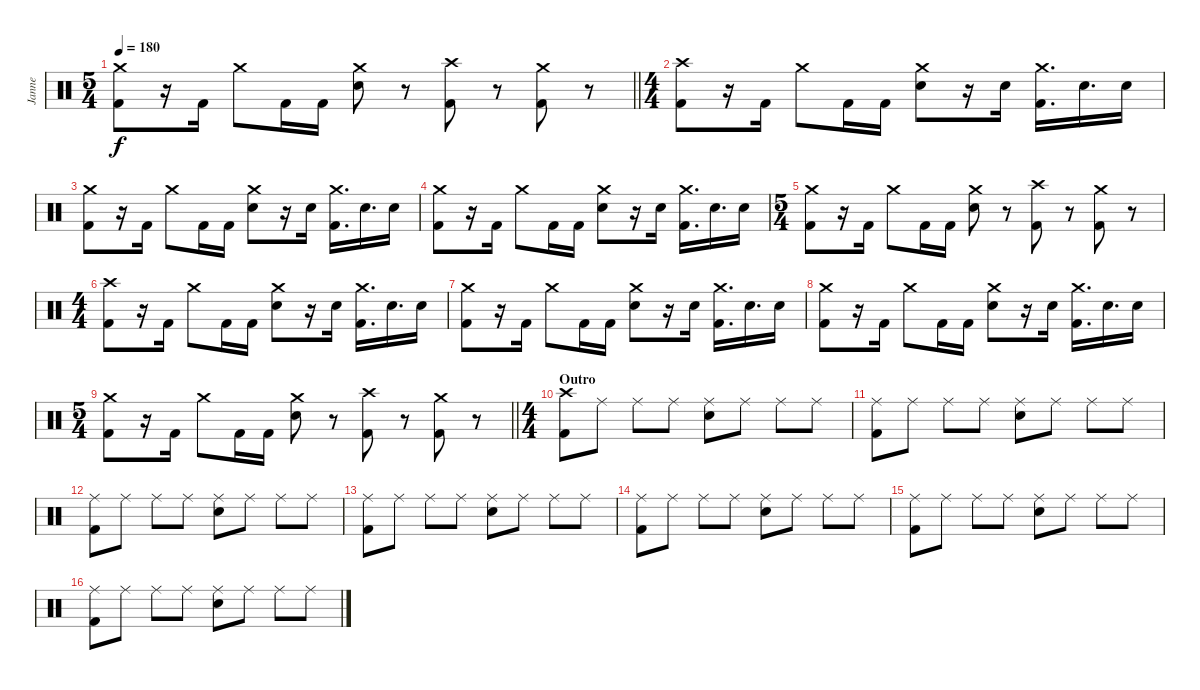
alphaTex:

\track ("Janne" "Janne") {instrument percussion}
\staff {score}
\articulation defaults
\ts (5 4)
\tempo 180
\clef neutral
\barLineRight lightlight
\ks c
("Crash medium (hit)" "Kick (hit) 2").8{dy f} r.16 "Kick (hit) 2".16 "Crash medium (hit)".8 "Kick (hit) 2".16 "Kick (hit) 2".16 ("Crash medium (hit)" "Electric Snare (hit)").8 r.8 ("Crash high (hit)" "Kick (hit) 2").8 r.8 ("Crash medium (hit)" "Kick (hit) 2").8 r.8 |
\ts (4 4)
("Crash high (hit)" "Kick (hit) 2").8 r.16 "Kick (hit) 2".16 "Crash medium (hit)".8 "Kick (hit) 2".16 "Kick (hit) 2".16 ("Crash medium (hit)" "Electric Snare (hit)").8 r.16 "Electric Snare (hit)".16 ("Crash medium (hit)" "Kick (hit) 2").16{d} "Electric Snare (hit)".16{d} "Electric Snare (hit)".16 |
("Crash medium (hit)" "Kick (hit) 2").8 r.16 "Kick (hit) 2".16 "Crash medium (hit)".8 "Kick (hit) 2".16 "Kick (hit) 2".16 ("Crash medium (hit)" "Electric Snare (hit)").8 r.16 "Electric Snare (hit)".16 ("Crash medium (hit)" "Kick (hit) 2").16{d} "Electric Snare (hit)".16{d} "Electric Snare (hit)".16 |
("Crash medium (hit)" "Kick (hit) 2").8 r.16 "Kick (hit) 2".16 "Crash medium (hit)".8 "Kick (hit) 2".16 "Kick (hit) 2".16 ("Crash medium (hit)" "Electric Snare (hit)").8 r.16 "Electric Snare (hit)".16 ("Crash medium (hit)" "Kick (hit) 2").16{d} "Electric Snare (hit)".16{d} "Electric Snare (hit)".16 |
\ts (5 4)
("Crash medium (hit)" "Kick (hit) 2").8 r.16 "Kick (hit) 2".16 "Crash medium (hit)".8 "Kick (hit) 2".16 "Kick (hit) 2".16 ("Crash medium (hit)" "Electric Snare (hit)").8 r.8 ("Crash high (hit)" "Kick (hit) 2").8 r.8 ("Crash medium (hit)" "Kick (hit) 2").8 r.8 |
\ts (4 4)
("Crash high (hit)" "Kick (hit) 2").8 r.16 "Kick (hit) 2".16 "Crash medium (hit)".8 "Kick (hit) 2".16 "Kick (hit) 2".16 ("Crash medium (hit)" "Electric Snare (hit)").8 r.16 "Electric Snare (hit)".16 ("Crash medium (hit)" "Kick (hit) 2").16{d} "Electric Snare (hit)".16{d} "Electric Snare (hit)".16 |
("Crash medium (hit)" "Kick (hit) 2").8 r.16 "Kick (hit) 2".16 "Crash medium (hit)".8 "Kick (hit) 2".16 "Kick (hit) 2".16 ("Crash medium (hit)" "Electric Snare (hit)").8 r.16 "Electric Snare (hit)".16 ("Crash medium (hit)" "Kick (hit) 2").16{d} "Electric Snare (hit)".16{d} "Electric Snare (hit)".16 |
("Crash medium (hit)" "Kick (hit) 2").8 r.16 "Kick (hit) 2".16 "Crash medium (hit)".8 "Kick (hit) 2".16 "Kick (hit) 2".16 ("Crash medium (hit)" "Electric Snare (hit)").8 r.16 "Electric Snare (hit)".16 ("Crash medium (hit)" "Kick (hit) 2").16{d} "Electric Snare (hit)".16{d} "Electric Snare (hit)".16 |
\ts (5 4)
\barLineRight lightlight
("Crash medium (hit)" "Kick (hit) 2").8 r.16 "Kick (hit) 2".16 "Crash medium (hit)".8 "Kick (hit) 2".16 "Kick (hit) 2".16 ("Crash medium (hit)" "Electric Snare (hit)").8 r.8 ("Crash high (hit)" "Kick (hit) 2").8 r.8 ("Crash medium (hit)" "Kick (hit) 2").8 r.8 |
\ts (4 4)
\section ("" "Outro")
("Crash high (hit)" "Kick (hit) 2").8 "Ride (middle)".8 "Ride (middle)".8 "Ride (middle)".8 ("Ride (middle)" "Electric Snare (hit)").8 "Ride (middle)".8 "Ride (middle)".8 "Ride (middle)".8 |
("Ride (middle)" "Kick (hit) 2").8 "Ride (middle)".8 "Ride (middle)".8 "Ride (middle)".8 ("Ride (middle)" "Electric Snare (hit)").8 "Ride (middle)".8 "Ride (middle)".8 "Ride (middle)".8 |
("Ride (middle)" "Kick (hit) 2").8 "Ride (middle)".8 "Ride (middle)".8 "Ride (middle)".8 ("Ride (middle)" "Electric Snare (hit)").8 "Ride (middle)".8 "Ride (middle)".8 "Ride (middle)".8 |
("Ride (middle)" "Kick (hit) 2").8 "Ride (middle)".8 "Ride (middle)".8 "Ride (middle)".8 ("Ride (middle)" "Electric Snare (hit)").8 "Ride (middle)".8 "Ride (middle)".8 "Ride (middle)".8 |
("Ride (middle)" "Kick (hit) 2").8 "Ride (middle)".8 "Ride (middle)".8 "Ride (middle)".8 ("Ride (middle)" "Electric Snare (hit)").8 "Ride (middle)".8 "Ride (middle)".8 "Ride (middle)".8 |
("Ride (middle)" "Kick (hit) 2").8 "Ride (middle)".8 "Ride (middle)".8 "Ride (middle)".8 ("Ride (middle)" "Electric Snare (hit)").8 "Ride (middle)".8 "Ride (middle)".8 "Ride (middle)".8 |
("Ride (middle)" "Kick (hit) 2").8 "Ride (middle)".8 "Ride (middle)".8 "Ride (middle)".8 ("Ride (middle)" "Electric Snare (hit)").8 "Ride (middle)".8 "Ride (middle)".8 "Ride (middle)".8
